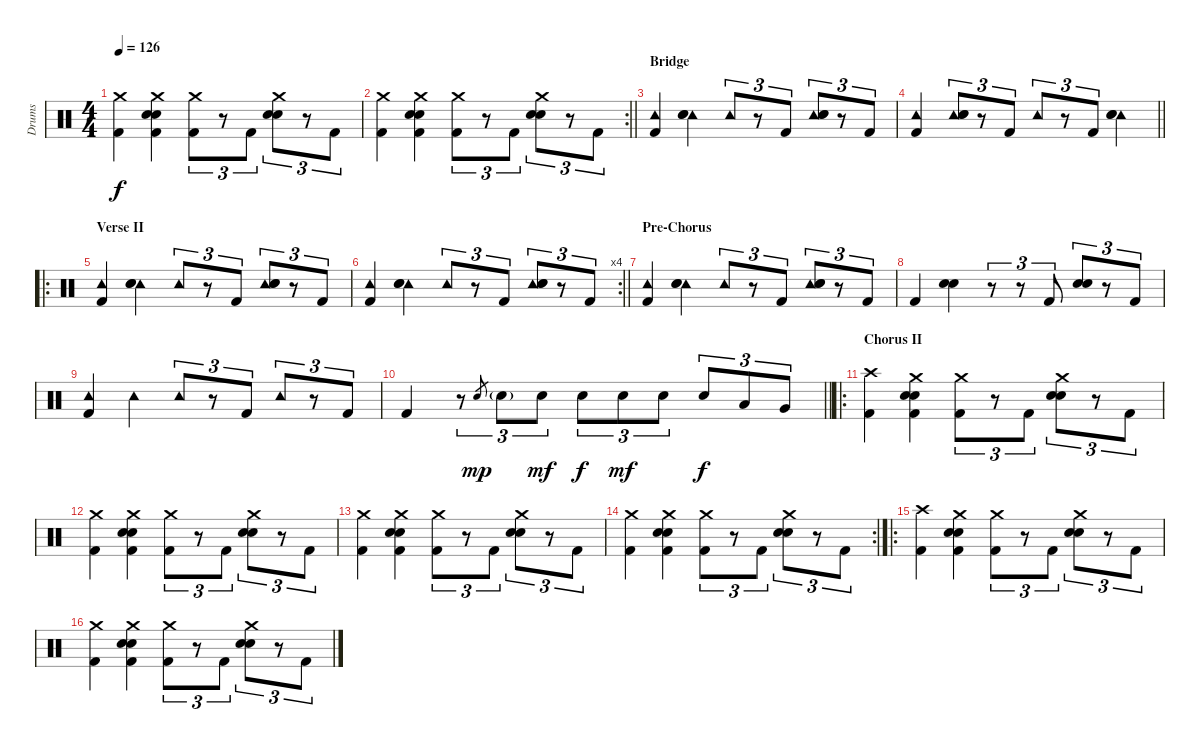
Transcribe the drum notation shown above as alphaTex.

\track ("Drums" "Drums") {instrument percussion}
\staff {score}
\articulation defaults
\ts (4 4)
\tempo 126
\clef neutral
\ks c
("Crash medium (hit)" "Kick (hit) 2").4{dy f} ("Crash medium (hit)" "Electric Snare (hit)" "Hand Clap (hit)" "Kick (hit) 2").4 ("Crash medium (hit)" "Kick (hit) 2").8{tu (3 2)} r.8{tu (3 2)} "Kick (hit) 2".8{tu (3 2)} ("Crash medium (hit)" "Electric Snare (hit)" "Hand Clap (hit)").8{tu (3 2)} r.8{tu (3 2)} "Kick (hit) 2".8{tu (3 2)} |
\rc 2
\barLineRight lightlight
("Crash medium (hit)" "Kick (hit) 2").4 ("Crash medium (hit)" "Electric Snare (hit)" "Hand Clap (hit)" "Kick (hit) 2").4 ("Crash medium (hit)" "Kick (hit) 2").8{tu (3 2)} r.8{tu (3 2)} "Kick (hit) 2".8{tu (3 2)} ("Crash medium (hit)" "Electric Snare (hit)" "Hand Clap (hit)").8{tu (3 2)} r.8{tu (3 2)} "Kick (hit) 2".8{tu (3 2)} |
\section ("" "Bridge")
("Tambourine (hit)" "Kick (hit) 2").4 ("Tambourine (hit)" "Electric Snare (hit)" "Hand Clap (hit)").4 "Tambourine (hit)".8{tu (3 2)} r.8{tu (3 2)} "Kick (hit) 2".8{tu (3 2)} ("Tambourine (hit)" "Electric Snare (hit)" "Hand Clap (hit)").8{tu (3 2)} r.8{tu (3 2)} "Kick (hit) 2".8{tu (3 2)} |
\barLineRight lightlight
("Tambourine (hit)" "Kick (hit) 2").4 ("Tambourine (hit)" "Electric Snare (hit)" "Hand Clap (hit)").8{tu (3 2)} r.8{tu (3 2)} "Kick (hit) 2".8{tu (3 2)} "Tambourine (hit)".8{tu (3 2)} r.8{tu (3 2)} "Kick (hit) 2".8{tu (3 2)} ("Tambourine (hit)" "Electric Snare (hit)" "Hand Clap (hit)").4 |
\ro
\section ("" "Verse II")
("Tambourine (hit)" "Kick (hit) 2").4 ("Tambourine (hit)" "Electric Snare (hit)" "Hand Clap (hit)").4 "Tambourine (hit)".8{tu (3 2)} r.8{tu (3 2)} "Kick (hit) 2".8{tu (3 2)} ("Tambourine (hit)" "Electric Snare (hit)" "Hand Clap (hit)").8{tu (3 2)} r.8{tu (3 2)} "Kick (hit) 2".8{tu (3 2)} |
\rc 4
\barLineRight lightlight
("Tambourine (hit)" "Kick (hit) 2").4 ("Tambourine (hit)" "Electric Snare (hit)" "Hand Clap (hit)").4 "Tambourine (hit)".8{tu (3 2)} r.8{tu (3 2)} "Kick (hit) 2".8{tu (3 2)} ("Tambourine (hit)" "Electric Snare (hit)" "Hand Clap (hit)").8{tu (3 2)} r.8{tu (3 2)} "Kick (hit) 2".8{tu (3 2)} |
\section ("" "Pre-Chorus")
("Tambourine (hit)" "Kick (hit) 2").4 ("Tambourine (hit)" "Electric Snare (hit)" "Hand Clap (hit)").4 "Tambourine (hit)".8{tu (3 2)} r.8{tu (3 2)} "Kick (hit) 2".8{tu (3 2)} ("Tambourine (hit)" "Electric Snare (hit)" "Hand Clap (hit)").8{tu (3 2)} r.8{tu (3 2)} "Kick (hit) 2".8{tu (3 2)} |
"Kick (hit) 2".4 ("Electric Snare (hit)" "Hand Clap (hit)").4 r.8{tu (3 2)} r.8{tu (3 2)} "Kick (hit) 2".8{tu (3 2)} ("Electric Snare (hit)" "Hand Clap (hit)").8{tu (3 2)} r.8{tu (3 2)} "Kick (hit) 2".8{tu (3 2)} |
("Tambourine (hit)" "Kick (hit) 2").4 "Tambourine (hit)".4 "Tambourine (hit)".8{tu (3 2)} r.8{tu (3 2)} "Kick (hit) 2".8{tu (3 2)} "Tambourine (hit)".8{tu (3 2)} r.8{tu (3 2)} "Kick (hit) 2".8{tu (3 2)} |
\barLineRight lightlight "Kick (hit) 2".4
r.8{tu (3 2)} "Snare (hit) 2".8{gr dy mp} "Electric Snare (hit)"{g}.8{tu (3 2)} "Electric Snare (hit)".8{tu (3 2) dy mf} "Electric Snare (hit)".8{tu (3 2) dy f} "Electric Snare (hit)".8{tu (3 2) dy mf} "Electric Snare (hit)".8{tu (3 2)} "Electric Snare (hit)".8{tu (3 2) dy f} "Low Tom (hit)".8{tu (3 2)} "Very Low Tom (hit)".8{tu (3 2)} |
\ro
\section ("" "Chorus II")
("Crash high (hit)" "Kick (hit) 2").4 ("Crash medium (hit)" "Electric Snare (hit)" "Hand Clap (hit)" "Kick (hit) 2").4 ("Crash medium (hit)" "Kick (hit) 2").8{tu (3 2)} r.8{tu (3 2)} "Kick (hit) 2".8{tu (3 2)} ("Crash medium (hit)" "Electric Snare (hit)" "Hand Clap (hit)").8{tu (3 2)} r.8{tu (3 2)} "Kick (hit) 2".8{tu (3 2)} |
("Crash medium (hit)" "Kick (hit) 2").4 ("Crash medium (hit)" "Electric Snare (hit)" "Hand Clap (hit)" "Kick (hit) 2").4 ("Crash medium (hit)" "Kick (hit) 2").8{tu (3 2)} r.8{tu (3 2)} "Kick (hit) 2".8{tu (3 2)} ("Crash medium (hit)" "Electric Snare (hit)" "Hand Clap (hit)").8{tu (3 2)} r.8{tu (3 2)} "Kick (hit) 2".8{tu (3 2)} |
("Crash medium (hit)" "Kick (hit) 2").4 ("Crash medium (hit)" "Electric Snare (hit)" "Hand Clap (hit)" "Kick (hit) 2").4 ("Crash medium (hit)" "Kick (hit) 2").8{tu (3 2)} r.8{tu (3 2)} "Kick (hit) 2".8{tu (3 2)} ("Crash medium (hit)" "Electric Snare (hit)" "Hand Clap (hit)").8{tu (3 2)} r.8{tu (3 2)} "Kick (hit) 2".8{tu (3 2)} |
\rc 2
("Crash medium (hit)" "Kick (hit) 2").4 ("Crash medium (hit)" "Electric Snare (hit)" "Hand Clap (hit)" "Kick (hit) 2").4 ("Crash medium (hit)" "Kick (hit) 2").8{tu (3 2)} r.8{tu (3 2)} "Kick (hit) 2".8{tu (3 2)} ("Crash medium (hit)" "Electric Snare (hit)" "Hand Clap (hit)").8{tu (3 2)} r.8{tu (3 2)} "Kick (hit) 2".8{tu (3 2)} |
\ro
("Crash high (hit)" "Kick (hit) 2").4 ("Crash medium (hit)" "Electric Snare (hit)" "Hand Clap (hit)" "Kick (hit) 2").4 ("Crash medium (hit)" "Kick (hit) 2").8{tu (3 2)} r.8{tu (3 2)} "Kick (hit) 2".8{tu (3 2)} ("Crash medium (hit)" "Electric Snare (hit)" "Hand Clap (hit)").8{tu (3 2)} r.8{tu (3 2)} "Kick (hit) 2".8{tu (3 2)} |
("Crash medium (hit)" "Kick (hit) 2").4 ("Crash medium (hit)" "Electric Snare (hit)" "Hand Clap (hit)" "Kick (hit) 2").4 ("Crash medium (hit)" "Kick (hit) 2").8{tu (3 2)} r.8{tu (3 2)} "Kick (hit) 2".8{tu (3 2)} ("Crash medium (hit)" "Electric Snare (hit)" "Hand Clap (hit)").8{tu (3 2)} r.8{tu (3 2)} "Kick (hit) 2".8{tu (3 2)}
